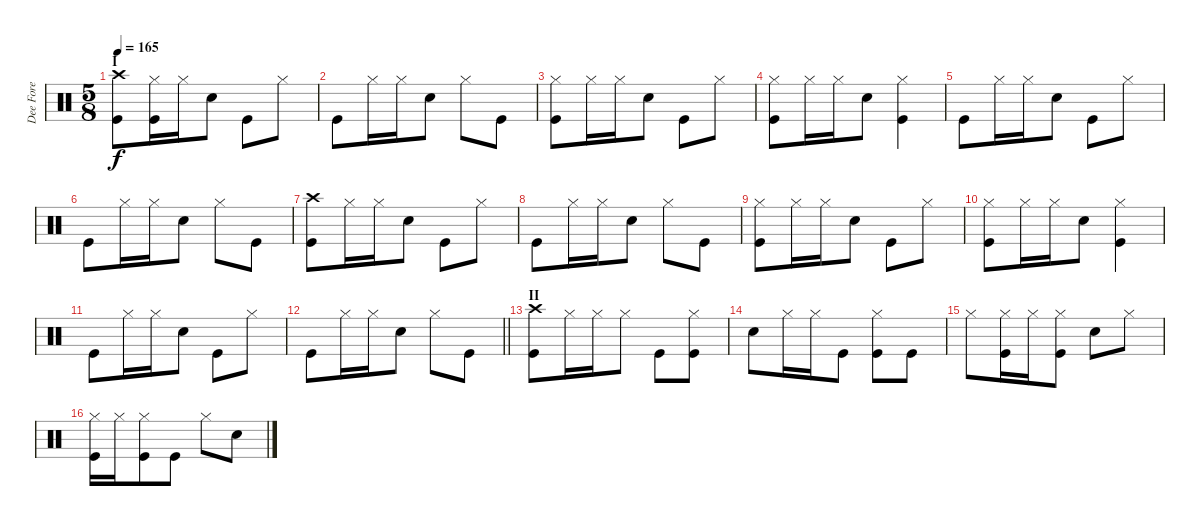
\track ("Dee Fore" "Dee Fore") {instrument percussion}
\staff {score}
\articulation defaults
\ts (5 8)
\section ("" "I")
\tempo 165
\clef neutral
\ks c
("Crash high (hit)" "Kick (hit)").8{dy f} ("Hi-Hat (closed)" "Kick (hit)").16 "Hi-Hat (closed)".16 "Electric Snare (hit)".8 "Kick (hit)".8 "Hi-Hat (closed)".8 |
"Kick (hit)".8 "Hi-Hat (closed)".16 "Hi-Hat (closed)".16 "Electric Snare (hit)".8 "Hi-Hat (closed)".8 "Kick (hit)".8 |
("Hi-Hat (closed)" "Kick (hit)").8 "Hi-Hat (closed)".16 "Hi-Hat (closed)".16 "Electric Snare (hit)".8 "Kick (hit)".8 "Hi-Hat (closed)".8 |
("Hi-Hat (closed)" "Kick (hit)").8 "Hi-Hat (closed)".16 "Hi-Hat (closed)".16 "Electric Snare (hit)".8 ("Hi-Hat (closed)" "Kick (hit)").4 |
"Kick (hit)".8 "Hi-Hat (closed)".16 "Hi-Hat (closed)".16 "Electric Snare (hit)".8 "Kick (hit)".8 "Hi-Hat (closed)".8 |
"Kick (hit)".8 "Hi-Hat (closed)".16 "Hi-Hat (closed)".16 "Electric Snare (hit)".8 "Hi-Hat (closed)".8 "Kick (hit)".8 |
("Crash high (hit)" "Kick (hit)").8 "Hi-Hat (closed)".16 "Hi-Hat (closed)".16 "Electric Snare (hit)".8 "Kick (hit)".8 "Hi-Hat (closed)".8 |
"Kick (hit)".8 "Hi-Hat (closed)".16 "Hi-Hat (closed)".16 "Electric Snare (hit)".8 "Hi-Hat (closed)".8 "Kick (hit)".8 |
("Hi-Hat (closed)" "Kick (hit)").8 "Hi-Hat (closed)".16 "Hi-Hat (closed)".16 "Electric Snare (hit)".8 "Kick (hit)".8 "Hi-Hat (closed)".8 |
("Hi-Hat (closed)" "Kick (hit)").8 "Hi-Hat (closed)".16 "Hi-Hat (closed)".16 "Electric Snare (hit)".8 ("Hi-Hat (closed)" "Kick (hit)").4 |
"Kick (hit)".8 "Hi-Hat (closed)".16 "Hi-Hat (closed)".16 "Electric Snare (hit)".8 "Kick (hit)".8 "Hi-Hat (closed)".8 |
\barLineRight lightlight "Kick (hit)".8 "Hi-Hat (closed)".16 "Hi-Hat (closed)".16 "Electric Snare (hit)".8 "Hi-Hat (closed)".8 "Kick (hit)".8
|
\section ("" "II")
("Crash high (hit)" "Kick (hit)").8 "Hi-Hat (closed)".16 "Hi-Hat (closed)".16 "Hi-Hat (closed)".8 "Kick (hit)".8 ("Hi-Hat (closed)" "Kick (hit)").8 |
"Electric Snare (hit)".8 "Hi-Hat (closed)".16 "Hi-Hat (closed)".16 "Kick (hit)".8 ("Hi-Hat (closed)" "Kick (hit)").8 "Kick (hit)".8 |
"Hi-Hat (closed)".8 ("Hi-Hat (closed)" "Kick (hit)").16 "Hi-Hat (closed)".16 ("Hi-Hat (closed)" "Kick (hit)").8 "Electric Snare (hit)".8 "Hi-Hat (closed)".8 |
("Hi-Hat (closed)" "Kick (hit)").16 "Hi-Hat (closed)".16 ("Hi-Hat (closed)" "Kick (hit)").8 "Kick (hit)".8 "Hi-Hat (closed)".8 "Electric Snare (hit)".8
